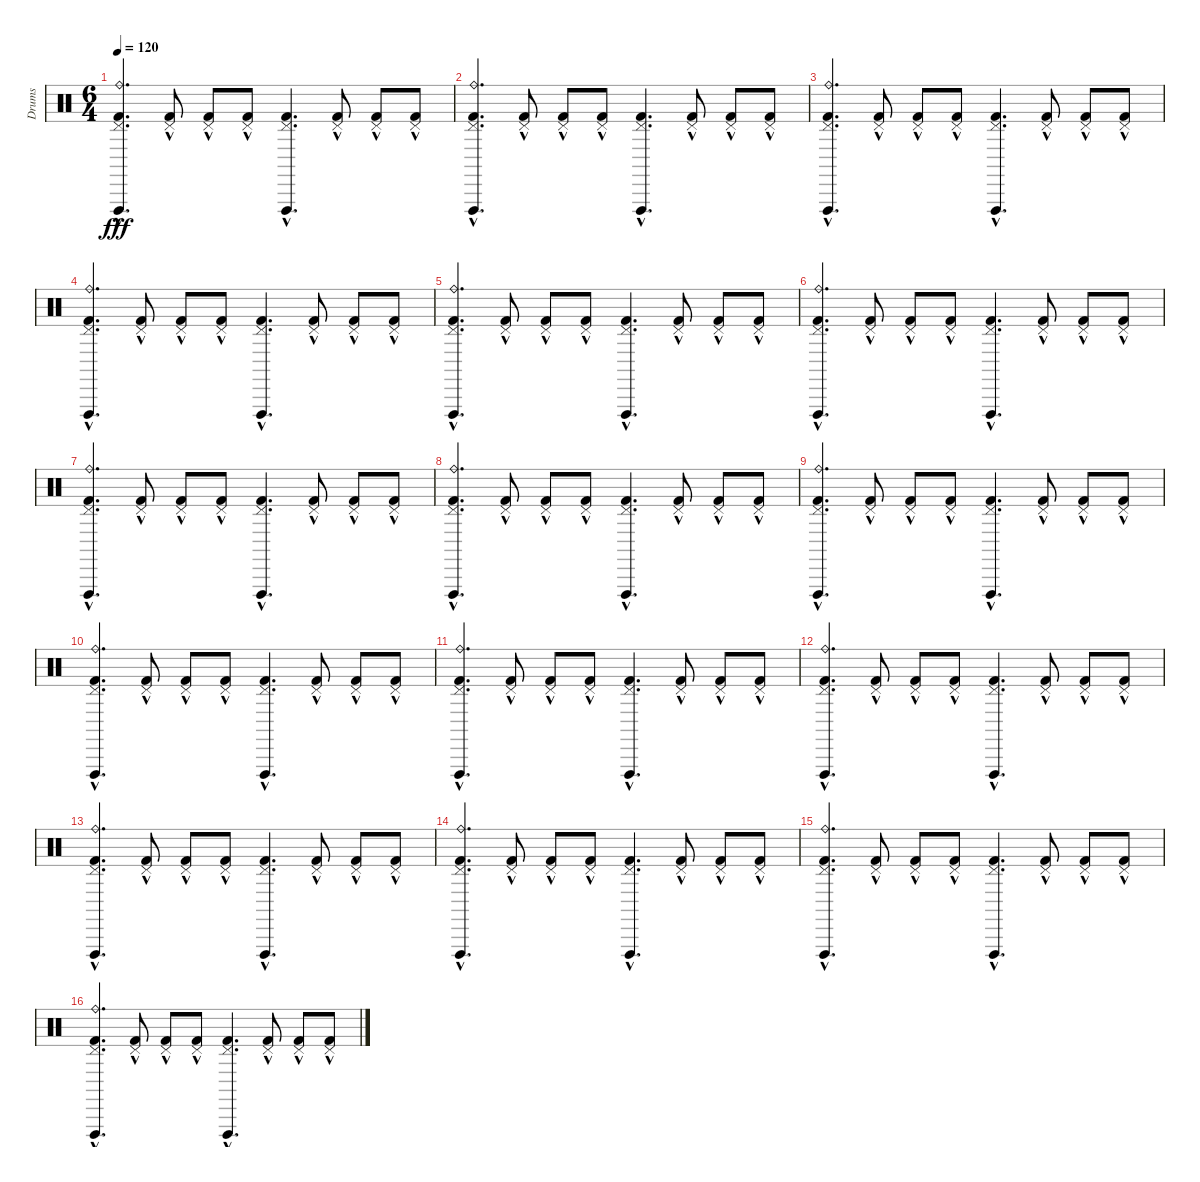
\track ("Drums" "Drums") {instrument percussion}
\staff {score}
\articulation defaults
\ts (6 4)
\tempo 120
\clef neutral
\ks c
("Pedal Hi-Hat (hit)" "Ride (bell)" "Vibraslap (hit)"{hac} "Kick (hit) 2"{hac}).4{d dy fff} ("Pedal Hi-Hat (hit)" "Kick (hit) 2"{hac}).8 ("Pedal Hi-Hat (hit)" "Kick (hit) 2"{hac}).8 ("Pedal Hi-Hat (hit)" "Kick (hit) 2"{hac}).8 ("Pedal Hi-Hat (hit)" "Vibraslap (hit)"{hac} "Kick (hit) 2"{hac}).4{d} ("Pedal Hi-Hat (hit)" "Kick (hit) 2"{hac}).8 ("Pedal Hi-Hat (hit)" "Kick (hit) 2"{hac}).8 ("Pedal Hi-Hat (hit)" "Kick (hit) 2"{hac}).8 |
("Pedal Hi-Hat (hit)" "Ride (bell)" "Vibraslap (hit)"{hac} "Kick (hit) 2"{hac}).4{d} ("Pedal Hi-Hat (hit)" "Kick (hit) 2"{hac}).8 ("Pedal Hi-Hat (hit)" "Kick (hit) 2"{hac}).8 ("Pedal Hi-Hat (hit)" "Kick (hit) 2"{hac}).8 ("Pedal Hi-Hat (hit)" "Vibraslap (hit)"{hac} "Kick (hit) 2"{hac}).4{d} ("Pedal Hi-Hat (hit)" "Kick (hit) 2"{hac}).8 ("Pedal Hi-Hat (hit)" "Kick (hit) 2"{hac}).8 ("Pedal Hi-Hat (hit)" "Kick (hit) 2"{hac}).8 |
("Pedal Hi-Hat (hit)" "Ride (bell)" "Vibraslap (hit)"{hac} "Kick (hit) 2"{hac}).4{d} ("Pedal Hi-Hat (hit)" "Kick (hit) 2"{hac}).8 ("Pedal Hi-Hat (hit)" "Kick (hit) 2"{hac}).8 ("Pedal Hi-Hat (hit)" "Kick (hit) 2"{hac}).8 ("Pedal Hi-Hat (hit)" "Vibraslap (hit)"{hac} "Kick (hit) 2"{hac}).4{d} ("Pedal Hi-Hat (hit)" "Kick (hit) 2"{hac}).8 ("Pedal Hi-Hat (hit)" "Kick (hit) 2"{hac}).8 ("Pedal Hi-Hat (hit)" "Kick (hit) 2"{hac}).8 |
("Pedal Hi-Hat (hit)" "Ride (bell)" "Vibraslap (hit)"{hac} "Kick (hit) 2"{hac}).4{d} ("Pedal Hi-Hat (hit)" "Kick (hit) 2"{hac}).8 ("Pedal Hi-Hat (hit)" "Kick (hit) 2"{hac}).8 ("Pedal Hi-Hat (hit)" "Kick (hit) 2"{hac}).8 ("Pedal Hi-Hat (hit)" "Vibraslap (hit)"{hac} "Kick (hit) 2"{hac}).4{d} ("Pedal Hi-Hat (hit)" "Kick (hit) 2"{hac}).8 ("Pedal Hi-Hat (hit)" "Kick (hit) 2"{hac}).8 ("Pedal Hi-Hat (hit)" "Kick (hit) 2"{hac}).8 |
("Pedal Hi-Hat (hit)" "Ride (bell)" "Vibraslap (hit)"{hac} "Kick (hit) 2"{hac}).4{d} ("Pedal Hi-Hat (hit)" "Kick (hit) 2"{hac}).8 ("Pedal Hi-Hat (hit)" "Kick (hit) 2"{hac}).8 ("Pedal Hi-Hat (hit)" "Kick (hit) 2"{hac}).8 ("Pedal Hi-Hat (hit)" "Vibraslap (hit)"{hac} "Kick (hit) 2"{hac}).4{d} ("Pedal Hi-Hat (hit)" "Kick (hit) 2"{hac}).8 ("Pedal Hi-Hat (hit)" "Kick (hit) 2"{hac}).8 ("Pedal Hi-Hat (hit)" "Kick (hit) 2"{hac}).8 |
("Pedal Hi-Hat (hit)" "Ride (bell)" "Vibraslap (hit)"{hac} "Kick (hit) 2"{hac}).4{d} ("Pedal Hi-Hat (hit)" "Kick (hit) 2"{hac}).8 ("Pedal Hi-Hat (hit)" "Kick (hit) 2"{hac}).8 ("Pedal Hi-Hat (hit)" "Kick (hit) 2"{hac}).8 ("Pedal Hi-Hat (hit)" "Vibraslap (hit)"{hac} "Kick (hit) 2"{hac}).4{d} ("Pedal Hi-Hat (hit)" "Kick (hit) 2"{hac}).8 ("Pedal Hi-Hat (hit)" "Kick (hit) 2"{hac}).8 ("Pedal Hi-Hat (hit)" "Kick (hit) 2"{hac}).8 |
("Pedal Hi-Hat (hit)" "Ride (bell)" "Vibraslap (hit)"{hac} "Kick (hit) 2"{hac}).4{d} ("Pedal Hi-Hat (hit)" "Kick (hit) 2"{hac}).8 ("Pedal Hi-Hat (hit)" "Kick (hit) 2"{hac}).8 ("Pedal Hi-Hat (hit)" "Kick (hit) 2"{hac}).8 ("Pedal Hi-Hat (hit)" "Vibraslap (hit)"{hac} "Kick (hit) 2"{hac}).4{d} ("Pedal Hi-Hat (hit)" "Kick (hit) 2"{hac}).8 ("Pedal Hi-Hat (hit)" "Kick (hit) 2"{hac}).8 ("Pedal Hi-Hat (hit)" "Kick (hit) 2"{hac}).8 |
("Pedal Hi-Hat (hit)" "Ride (bell)" "Vibraslap (hit)"{hac} "Kick (hit) 2"{hac}).4{d} ("Pedal Hi-Hat (hit)" "Kick (hit) 2"{hac}).8 ("Pedal Hi-Hat (hit)" "Kick (hit) 2"{hac}).8 ("Pedal Hi-Hat (hit)" "Kick (hit) 2"{hac}).8 ("Pedal Hi-Hat (hit)" "Vibraslap (hit)"{hac} "Kick (hit) 2"{hac}).4{d} ("Pedal Hi-Hat (hit)" "Kick (hit) 2"{hac}).8 ("Pedal Hi-Hat (hit)" "Kick (hit) 2"{hac}).8 ("Pedal Hi-Hat (hit)" "Kick (hit) 2"{hac}).8 |
("Pedal Hi-Hat (hit)" "Ride (bell)" "Vibraslap (hit)"{hac} "Kick (hit) 2"{hac}).4{d} ("Pedal Hi-Hat (hit)" "Kick (hit) 2"{hac}).8 ("Pedal Hi-Hat (hit)" "Kick (hit) 2"{hac}).8 ("Pedal Hi-Hat (hit)" "Kick (hit) 2"{hac}).8 ("Pedal Hi-Hat (hit)" "Vibraslap (hit)"{hac} "Kick (hit) 2"{hac}).4{d} ("Pedal Hi-Hat (hit)" "Kick (hit) 2"{hac}).8 ("Pedal Hi-Hat (hit)" "Kick (hit) 2"{hac}).8 ("Pedal Hi-Hat (hit)" "Kick (hit) 2"{hac}).8 |
("Pedal Hi-Hat (hit)" "Ride (bell)" "Vibraslap (hit)"{hac} "Kick (hit) 2"{hac}).4{d} ("Pedal Hi-Hat (hit)" "Kick (hit) 2"{hac}).8 ("Pedal Hi-Hat (hit)" "Kick (hit) 2"{hac}).8 ("Pedal Hi-Hat (hit)" "Kick (hit) 2"{hac}).8 ("Pedal Hi-Hat (hit)" "Vibraslap (hit)"{hac} "Kick (hit) 2"{hac}).4{d} ("Pedal Hi-Hat (hit)" "Kick (hit) 2"{hac}).8 ("Pedal Hi-Hat (hit)" "Kick (hit) 2"{hac}).8 ("Pedal Hi-Hat (hit)" "Kick (hit) 2"{hac}).8 |
("Pedal Hi-Hat (hit)" "Ride (bell)" "Vibraslap (hit)"{hac} "Kick (hit) 2"{hac}).4{d} ("Pedal Hi-Hat (hit)" "Kick (hit) 2"{hac}).8 ("Pedal Hi-Hat (hit)" "Kick (hit) 2"{hac}).8 ("Pedal Hi-Hat (hit)" "Kick (hit) 2"{hac}).8 ("Pedal Hi-Hat (hit)" "Vibraslap (hit)"{hac} "Kick (hit) 2"{hac}).4{d} ("Pedal Hi-Hat (hit)" "Kick (hit) 2"{hac}).8 ("Pedal Hi-Hat (hit)" "Kick (hit) 2"{hac}).8 ("Pedal Hi-Hat (hit)" "Kick (hit) 2"{hac}).8 |
("Pedal Hi-Hat (hit)" "Ride (bell)" "Vibraslap (hit)"{hac} "Kick (hit) 2"{hac}).4{d} ("Pedal Hi-Hat (hit)" "Kick (hit) 2"{hac}).8 ("Pedal Hi-Hat (hit)" "Kick (hit) 2"{hac}).8 ("Pedal Hi-Hat (hit)" "Kick (hit) 2"{hac}).8 ("Pedal Hi-Hat (hit)" "Vibraslap (hit)"{hac} "Kick (hit) 2"{hac}).4{d} ("Pedal Hi-Hat (hit)" "Kick (hit) 2"{hac}).8 ("Pedal Hi-Hat (hit)" "Kick (hit) 2"{hac}).8 ("Pedal Hi-Hat (hit)" "Kick (hit) 2"{hac}).8 |
("Pedal Hi-Hat (hit)" "Ride (bell)" "Vibraslap (hit)"{hac} "Kick (hit) 2"{hac}).4{d} ("Pedal Hi-Hat (hit)" "Kick (hit) 2"{hac}).8 ("Pedal Hi-Hat (hit)" "Kick (hit) 2"{hac}).8 ("Pedal Hi-Hat (hit)" "Kick (hit) 2"{hac}).8 ("Pedal Hi-Hat (hit)" "Vibraslap (hit)"{hac} "Kick (hit) 2"{hac}).4{d} ("Pedal Hi-Hat (hit)" "Kick (hit) 2"{hac}).8 ("Pedal Hi-Hat (hit)" "Kick (hit) 2"{hac}).8 ("Pedal Hi-Hat (hit)" "Kick (hit) 2"{hac}).8 |
("Pedal Hi-Hat (hit)" "Ride (bell)" "Vibraslap (hit)"{hac} "Kick (hit) 2"{hac}).4{d} ("Pedal Hi-Hat (hit)" "Kick (hit) 2"{hac}).8 ("Pedal Hi-Hat (hit)" "Kick (hit) 2"{hac}).8 ("Pedal Hi-Hat (hit)" "Kick (hit) 2"{hac}).8 ("Pedal Hi-Hat (hit)" "Vibraslap (hit)"{hac} "Kick (hit) 2"{hac}).4{d} ("Pedal Hi-Hat (hit)" "Kick (hit) 2"{hac}).8 ("Pedal Hi-Hat (hit)" "Kick (hit) 2"{hac}).8 ("Pedal Hi-Hat (hit)" "Kick (hit) 2"{hac}).8 |
("Pedal Hi-Hat (hit)" "Ride (bell)" "Vibraslap (hit)"{hac} "Kick (hit) 2"{hac}).4{d} ("Pedal Hi-Hat (hit)" "Kick (hit) 2"{hac}).8 ("Pedal Hi-Hat (hit)" "Kick (hit) 2"{hac}).8 ("Pedal Hi-Hat (hit)" "Kick (hit) 2"{hac}).8 ("Pedal Hi-Hat (hit)" "Vibraslap (hit)"{hac} "Kick (hit) 2"{hac}).4{d} ("Pedal Hi-Hat (hit)" "Kick (hit) 2"{hac}).8 ("Pedal Hi-Hat (hit)" "Kick (hit) 2"{hac}).8 ("Pedal Hi-Hat (hit)" "Kick (hit) 2"{hac}).8 |
("Pedal Hi-Hat (hit)" "Ride (bell)" "Vibraslap (hit)"{hac} "Kick (hit) 2"{hac}).4{d} ("Pedal Hi-Hat (hit)" "Kick (hit) 2"{hac}).8 ("Pedal Hi-Hat (hit)" "Kick (hit) 2"{hac}).8 ("Pedal Hi-Hat (hit)" "Kick (hit) 2"{hac}).8 ("Pedal Hi-Hat (hit)" "Vibraslap (hit)"{hac} "Kick (hit) 2"{hac}).4{d} ("Pedal Hi-Hat (hit)" "Kick (hit) 2"{hac}).8 ("Pedal Hi-Hat (hit)" "Kick (hit) 2"{hac}).8 ("Pedal Hi-Hat (hit)" "Kick (hit) 2"{hac}).8
